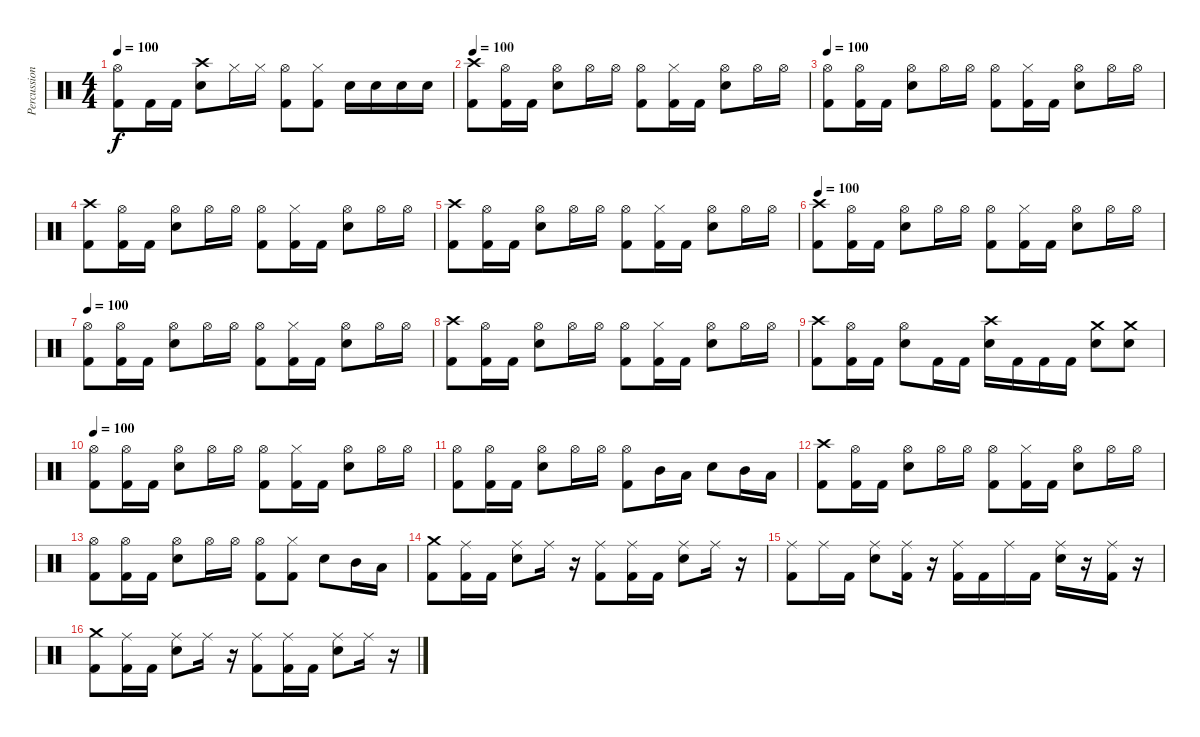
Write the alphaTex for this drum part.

\track ("Percussion" "Percussion") {instrument percussion}
\staff {score}
\articulation defaults
\ts (4 4)
\tempo 100
\clef neutral
\ks c
("Hi-Hat (open)" "Kick (hit) 2").8{dy f} "Kick (hit) 2".16 "Kick (hit) 2".16 ("Crash high (hit)" "Snare (hit) 2").8 "Hi-Hat (closed)".16 "Hi-Hat (closed)".16 ("Hi-Hat (open)" "Kick (hit) 2").8 ("Hi-Hat (closed)" "Kick (hit) 2").8 "Snare (hit) 2".16 "Snare (hit) 2".16 "Snare (hit) 2".16 "Snare (hit) 2".16 |
\tempo 100
("Crash high (hit)" "Kick (hit) 2").8 ("Hi-Hat (open)" "Kick (hit) 2").16 "Kick (hit) 2".16 ("Hi-Hat (open)" "Snare (hit) 2").8 "Hi-Hat (open)".16 "Hi-Hat (open)".16 ("Hi-Hat (open)" "Kick (hit) 2").8 ("Hi-Hat (closed)" "Kick (hit) 2").16 "Kick (hit) 2".16 ("Hi-Hat (open)" "Snare (hit) 2").8 "Hi-Hat (open)".16 "Hi-Hat (open)".16 |
\tempo 100
("Hi-Hat (open)" "Kick (hit) 2").8 ("Hi-Hat (open)" "Kick (hit) 2").16 "Kick (hit) 2".16 ("Hi-Hat (open)" "Snare (hit) 2").8 "Hi-Hat (open)".16 "Hi-Hat (open)".16 ("Hi-Hat (open)" "Kick (hit) 2").8 ("Hi-Hat (closed)" "Kick (hit) 2").16 "Kick (hit) 2".16 ("Hi-Hat (open)" "Snare (hit) 2").8 "Hi-Hat (open)".16 "Hi-Hat (open)".16 |
("Crash high (hit)" "Kick (hit) 2").8 ("Hi-Hat (open)" "Kick (hit) 2").16 "Kick (hit) 2".16 ("Hi-Hat (open)" "Snare (hit) 2").8 "Hi-Hat (open)".16 "Hi-Hat (open)".16 ("Hi-Hat (open)" "Kick (hit) 2").8 ("Hi-Hat (closed)" "Kick (hit) 2").16 "Kick (hit) 2".16 ("Hi-Hat (open)" "Snare (hit) 2").8 "Hi-Hat (open)".16 "Hi-Hat (open)".16 |
("Crash high (hit)" "Kick (hit) 2").8 ("Hi-Hat (open)" "Kick (hit) 2").16 "Kick (hit) 2".16 ("Hi-Hat (open)" "Snare (hit) 2").8 "Hi-Hat (open)".16 "Hi-Hat (open)".16 ("Hi-Hat (open)" "Kick (hit) 2").8 ("Hi-Hat (closed)" "Kick (hit) 2").16 "Kick (hit) 2".16 ("Hi-Hat (open)" "Snare (hit) 2").8 "Hi-Hat (open)".16 "Hi-Hat (open)".16 |
\tempo 100
("Crash high (hit)" "Kick (hit) 2").8 ("Hi-Hat (open)" "Kick (hit) 2").16 "Kick (hit) 2".16 ("Hi-Hat (open)" "Snare (hit) 2").8 "Hi-Hat (open)".16 "Hi-Hat (open)".16 ("Hi-Hat (open)" "Kick (hit) 2").8 ("Hi-Hat (closed)" "Kick (hit) 2").16 "Kick (hit) 2".16 ("Hi-Hat (open)" "Snare (hit) 2").8 "Hi-Hat (open)".16 "Hi-Hat (open)".16 |
\tempo 100
("Hi-Hat (open)" "Kick (hit) 2").8 ("Hi-Hat (open)" "Kick (hit) 2").16 "Kick (hit) 2".16 ("Hi-Hat (open)" "Snare (hit) 2").8 "Hi-Hat (open)".16 "Hi-Hat (open)".16 ("Hi-Hat (open)" "Kick (hit) 2").8 ("Hi-Hat (closed)" "Kick (hit) 2").16 "Kick (hit) 2".16 ("Hi-Hat (open)" "Snare (hit) 2").8 "Hi-Hat (open)".16 "Hi-Hat (open)".16 |
("Crash high (hit)" "Kick (hit) 2").8 ("Hi-Hat (open)" "Kick (hit) 2").16 "Kick (hit) 2".16 ("Hi-Hat (open)" "Snare (hit) 2").8 "Hi-Hat (open)".16 "Hi-Hat (open)".16 ("Hi-Hat (open)" "Kick (hit) 2").8 ("Hi-Hat (closed)" "Kick (hit) 2").16 "Kick (hit) 2".16 ("Hi-Hat (open)" "Snare (hit) 2").8 "Hi-Hat (open)".16 "Hi-Hat (open)".16 |
("Crash high (hit)" "Kick (hit) 2").8 ("Hi-Hat (open)" "Kick (hit) 2").16 "Kick (hit) 2".16 ("Hi-Hat (open)" "Snare (hit) 2").8 "Kick (hit) 2".16 "Kick (hit) 2".16 ("Crash high (hit)" "Snare (hit) 2").16 "Kick (hit) 2".16 "Kick (hit) 2".16 "Kick (hit) 2".16 ("Crash medium (hit)" "Snare (hit) 2").8 ("Crash medium (hit)" "Snare (hit) 2").8 |
\tempo 100
("Hi-Hat (open)" "Kick (hit) 2").8 ("Hi-Hat (open)" "Kick (hit) 2").16 "Kick (hit) 2".16 ("Hi-Hat (open)" "Snare (hit) 2").8 "Hi-Hat (open)".16 "Hi-Hat (open)".16 ("Hi-Hat (open)" "Kick (hit) 2").8 ("Hi-Hat (closed)" "Kick (hit) 2").16 "Kick (hit) 2".16 ("Hi-Hat (open)" "Snare (hit) 2").8 "Hi-Hat (open)".16 "Hi-Hat (open)".16 |
("Hi-Hat (open)" "Kick (hit) 2").8 ("Hi-Hat (open)" "Kick (hit) 2").16 "Kick (hit) 2".16 ("Hi-Hat (open)" "Snare (hit) 2").8 "Hi-Hat (open)".16 "Hi-Hat (open)".16 ("Hi-Hat (open)" "Kick (hit) 2").8 "Mid Tom (hit)".16 "Low Tom (hit)".16 "Snare (hit) 2".8 "Mid Tom (hit)".16 "Low Tom (hit)".16 |
("Crash high (hit)" "Kick (hit) 2").8 ("Hi-Hat (open)" "Kick (hit) 2").16 "Kick (hit) 2".16 ("Hi-Hat (open)" "Snare (hit) 2").8 "Hi-Hat (open)".16 "Hi-Hat (open)".16 ("Hi-Hat (open)" "Kick (hit) 2").8 ("Hi-Hat (closed)" "Kick (hit) 2").16 "Kick (hit) 2".16 ("Hi-Hat (open)" "Snare (hit) 2").8 "Hi-Hat (open)".16 "Hi-Hat (open)".16 |
("Hi-Hat (open)" "Kick (hit) 2").8 ("Hi-Hat (open)" "Kick (hit) 2").16 "Kick (hit) 2".16 ("Hi-Hat (open)" "Snare (hit) 2").8 "Hi-Hat (open)".16 "Hi-Hat (open)".16 ("Hi-Hat (open)" "Kick (hit) 2").8 ("Hi-Hat (closed)" "Kick (hit) 2").8 "Snare (hit) 2".8 "Mid Tom (hit)".16 "Low Tom (hit)".16 |
("Crash medium (hit)" "Kick (hit) 2").8 ("Ride (middle)" "Kick (hit) 2").16 "Kick (hit) 2".16 ("Ride (middle)" "Snare (hit) 2").8 "Ride (middle)".16 r.16 ("Ride (middle)" "Kick (hit) 2").8 ("Ride (middle)" "Kick (hit) 2").16 "Kick (hit) 2".16 ("Ride (middle)" "Snare (hit) 2").8 "Ride (middle)".16 r.16 |
("Ride (middle)" "Kick (hit) 2").8 "Ride (middle)".16 "Kick (hit) 2".16 ("Ride (middle)" "Snare (hit) 2").8 ("Ride (middle)" "Kick (hit) 2").16 r.16 ("Ride (middle)" "Kick (hit) 2").16 "Kick (hit) 2".16 "Ride (middle)".16 "Kick (hit) 2".16 ("Ride (middle)" "Snare (hit) 2").16 r.16 ("Ride (middle)" "Kick (hit) 2").16 r.16 |
("Crash medium (hit)" "Kick (hit) 2").8 ("Ride (middle)" "Kick (hit) 2").16 "Kick (hit) 2".16 ("Ride (middle)" "Snare (hit) 2").8 "Ride (middle)".16 r.16 ("Ride (middle)" "Kick (hit) 2").8 ("Ride (middle)" "Kick (hit) 2").16 "Kick (hit) 2".16 ("Ride (middle)" "Snare (hit) 2").8 "Ride (middle)".16 r.16
